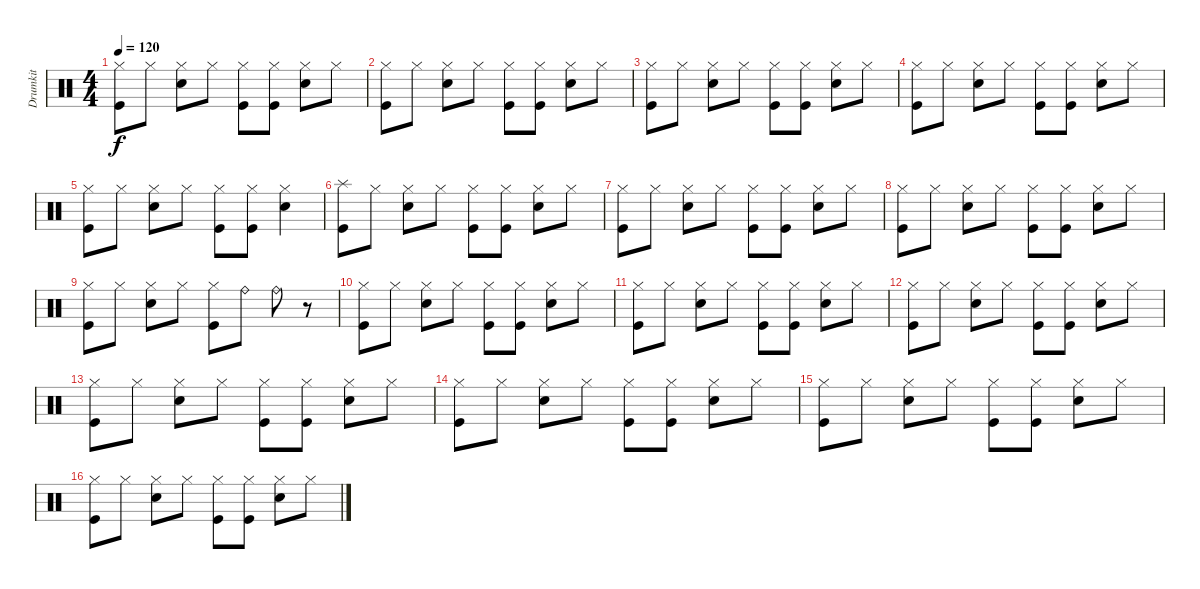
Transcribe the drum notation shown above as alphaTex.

\track ("Drumkit" "Drumkit") {instrument percussion}
\staff {score}
\articulation defaults
\ts (4 4)
\tempo 120
\clef neutral
\ks c
("Hi-Hat (closed)" "Kick (hit)").8{dy f} "Hi-Hat (closed)".8 ("Snare (hit) 2" "Hi-Hat (closed)").8 "Hi-Hat (closed)".8 ("Hi-Hat (closed)" "Kick (hit)").8 ("Hi-Hat (closed)" "Kick (hit)").8 ("Snare (hit) 2" "Hi-Hat (closed)").8 "Hi-Hat (closed)".8 |
("Hi-Hat (closed)" "Kick (hit)").8 "Hi-Hat (closed)".8 ("Snare (hit) 2" "Hi-Hat (closed)").8 "Hi-Hat (closed)".8 ("Hi-Hat (closed)" "Kick (hit)").8 ("Hi-Hat (closed)" "Kick (hit)").8 ("Snare (hit) 2" "Hi-Hat (closed)").8 "Hi-Hat (closed)".8 |
("Hi-Hat (closed)" "Kick (hit)").8 "Hi-Hat (closed)".8 ("Snare (hit) 2" "Hi-Hat (closed)").8 "Hi-Hat (closed)".8 ("Hi-Hat (closed)" "Kick (hit)").8 ("Hi-Hat (closed)" "Kick (hit)").8 ("Snare (hit) 2" "Hi-Hat (closed)").8 "Hi-Hat (closed)".8 |
("Hi-Hat (closed)" "Kick (hit)").8 "Hi-Hat (closed)".8 ("Snare (hit) 2" "Hi-Hat (closed)").8 "Hi-Hat (closed)".8 ("Hi-Hat (closed)" "Kick (hit)").8 ("Hi-Hat (closed)" "Kick (hit)").8 ("Snare (hit) 2" "Hi-Hat (closed)").8 "Hi-Hat (closed)".8 |
("Hi-Hat (closed)" "Kick (hit)").8 "Hi-Hat (closed)".8 ("Snare (hit) 2" "Hi-Hat (closed)").8 "Hi-Hat (closed)".8 ("Hi-Hat (closed)" "Kick (hit)").8 ("Hi-Hat (closed)" "Kick (hit)").8 ("Snare (hit) 2" "Hi-Hat (closed)").4 |
("Kick (hit)" "Splash (hit)").8 "Hi-Hat (closed)".8 ("Snare (hit) 2" "Hi-Hat (closed)").8 "Hi-Hat (closed)".8 ("Hi-Hat (closed)" "Kick (hit)").8 ("Hi-Hat (closed)" "Kick (hit)").8 ("Snare (hit) 2" "Hi-Hat (closed)").8 "Hi-Hat (closed)".8 |
("Hi-Hat (closed)" "Kick (hit)").8 "Hi-Hat (closed)".8 ("Snare (hit) 2" "Hi-Hat (closed)").8 "Hi-Hat (closed)".8 ("Hi-Hat (closed)" "Kick (hit)").8 ("Hi-Hat (closed)" "Kick (hit)").8 ("Snare (hit) 2" "Hi-Hat (closed)").8 "Hi-Hat (closed)".8 |
("Hi-Hat (closed)" "Kick (hit)").8 "Hi-Hat (closed)".8 ("Snare (hit) 2" "Hi-Hat (closed)").8 "Hi-Hat (closed)".8 ("Hi-Hat (closed)" "Kick (hit)").8 ("Hi-Hat (closed)" "Kick (hit)").8 ("Snare (hit) 2" "Hi-Hat (closed)").8 "Hi-Hat (closed)".8 |
("Hi-Hat (closed)" "Kick (hit)").8 "Hi-Hat (closed)".8 ("Snare (hit) 2" "Hi-Hat (closed)").8 "Hi-Hat (closed)".8 ("Hi-Hat (closed)" "Kick (hit)").8 "Ride (bell)".8 "Ride (bell)".8 r.8 |
("Hi-Hat (closed)" "Kick (hit)").8 "Hi-Hat (closed)".8 ("Snare (hit) 2" "Hi-Hat (closed)").8 "Hi-Hat (closed)".8 ("Hi-Hat (closed)" "Kick (hit)").8 ("Hi-Hat (closed)" "Kick (hit)").8 ("Snare (hit) 2" "Hi-Hat (closed)").8 "Hi-Hat (closed)".8 |
("Hi-Hat (closed)" "Kick (hit)").8 "Hi-Hat (closed)".8 ("Snare (hit) 2" "Hi-Hat (closed)").8 "Hi-Hat (closed)".8 ("Hi-Hat (closed)" "Kick (hit)").8 ("Hi-Hat (closed)" "Kick (hit)").8 ("Snare (hit) 2" "Hi-Hat (closed)").8 "Hi-Hat (closed)".8 |
("Hi-Hat (closed)" "Kick (hit)").8 "Hi-Hat (closed)".8 ("Snare (hit) 2" "Hi-Hat (closed)").8 "Hi-Hat (closed)".8 ("Hi-Hat (closed)" "Kick (hit)").8 ("Hi-Hat (closed)" "Kick (hit)").8 ("Snare (hit) 2" "Hi-Hat (closed)").8 "Hi-Hat (closed)".8 |
("Hi-Hat (closed)" "Kick (hit)").8 "Hi-Hat (closed)".8 ("Snare (hit) 2" "Hi-Hat (closed)").8 "Hi-Hat (closed)".8 ("Hi-Hat (closed)" "Kick (hit)").8 ("Hi-Hat (closed)" "Kick (hit)").8 ("Snare (hit) 2" "Hi-Hat (closed)").8 "Hi-Hat (closed)".8 |
("Hi-Hat (closed)" "Kick (hit)").8 "Hi-Hat (closed)".8 ("Snare (hit) 2" "Hi-Hat (closed)").8 "Hi-Hat (closed)".8 ("Hi-Hat (closed)" "Kick (hit)").8 ("Hi-Hat (closed)" "Kick (hit)").8 ("Snare (hit) 2" "Hi-Hat (closed)").8 "Hi-Hat (closed)".8 |
("Hi-Hat (closed)" "Kick (hit)").8 "Hi-Hat (closed)".8 ("Snare (hit) 2" "Hi-Hat (closed)").8 "Hi-Hat (closed)".8 ("Hi-Hat (closed)" "Kick (hit)").8 ("Hi-Hat (closed)" "Kick (hit)").8 ("Snare (hit) 2" "Hi-Hat (closed)").8 "Hi-Hat (closed)".8 |
("Hi-Hat (closed)" "Kick (hit)").8 "Hi-Hat (closed)".8 ("Snare (hit) 2" "Hi-Hat (closed)").8 "Hi-Hat (closed)".8 ("Hi-Hat (closed)" "Kick (hit)").8 ("Hi-Hat (closed)" "Kick (hit)").8 ("Snare (hit) 2" "Hi-Hat (closed)").8 "Hi-Hat (closed)".8
